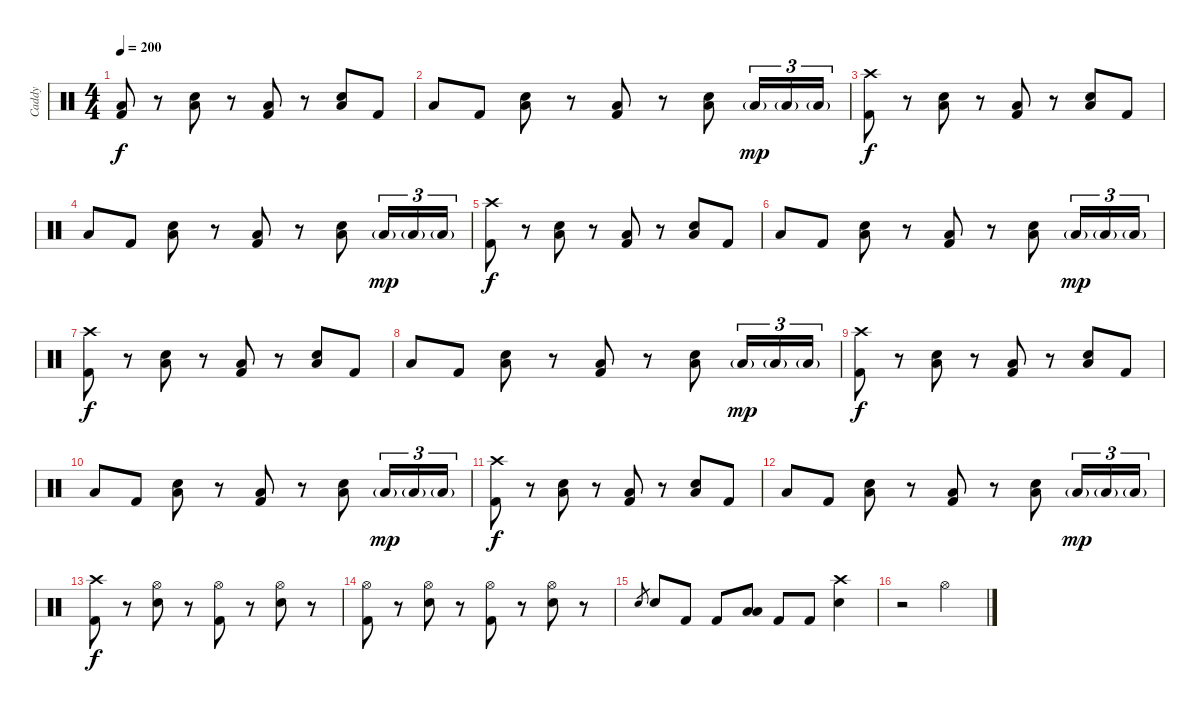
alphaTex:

\track ("Caddy" "Caddy") {instrument percussion}
\staff {score}
\articulation defaults
\ts (4 4)
\tempo 200
\clef neutral
\ks c
("Low Floor Tom (hit)" "Kick (hit) 2").8{dy f} r.8 ("Electric Snare (hit)" "Low Floor Tom (hit)").8 r.8 ("Low Floor Tom (hit)" "Kick (hit) 2").8 r.8 ("Electric Snare (hit)" "Low Floor Tom (hit)").8 "Kick (hit) 2".8 |
"Low Floor Tom (hit)".8 "Kick (hit) 2".8 ("Electric Snare (hit)" "Low Floor Tom (hit)").8 r.8 ("Low Floor Tom (hit)" "Kick (hit) 2").8 r.8 ("Electric Snare (hit)" "Low Floor Tom (hit)").8 "Low Floor Tom (hit)"{g}.16{tu (3 2) dy mp} "Low Floor Tom (hit)"{g}.16{tu (3 2)} "Low Floor Tom (hit)"{g}.16{tu (3 2)} |
("Crash high (hit)" "Kick (hit) 2").8{dy f} r.8 ("Electric Snare (hit)" "Low Floor Tom (hit)").8 r.8 ("Low Floor Tom (hit)" "Kick (hit) 2").8 r.8 ("Electric Snare (hit)" "Low Floor Tom (hit)").8 "Kick (hit) 2".8 |
"Low Floor Tom (hit)".8 "Kick (hit) 2".8 ("Electric Snare (hit)" "Low Floor Tom (hit)").8 r.8 ("Low Floor Tom (hit)" "Kick (hit) 2").8 r.8 ("Electric Snare (hit)" "Low Floor Tom (hit)").8 "Low Floor Tom (hit)"{g}.16{tu (3 2) dy mp} "Low Floor Tom (hit)"{g}.16{tu (3 2)} "Low Floor Tom (hit)"{g}.16{tu (3 2)} |
("Crash high (hit)" "Kick (hit) 2").8{dy f} r.8 ("Electric Snare (hit)" "Low Floor Tom (hit)").8 r.8 ("Low Floor Tom (hit)" "Kick (hit) 2").8 r.8 ("Electric Snare (hit)" "Low Floor Tom (hit)").8 "Kick (hit) 2".8 |
"Low Floor Tom (hit)".8 "Kick (hit) 2".8 ("Electric Snare (hit)" "Low Floor Tom (hit)").8 r.8 ("Low Floor Tom (hit)" "Kick (hit) 2").8 r.8 ("Electric Snare (hit)" "Low Floor Tom (hit)").8 "Low Floor Tom (hit)"{g}.16{tu (3 2) dy mp} "Low Floor Tom (hit)"{g}.16{tu (3 2)} "Low Floor Tom (hit)"{g}.16{tu (3 2)} |
("Crash high (hit)" "Kick (hit) 2").8{dy f} r.8 ("Electric Snare (hit)" "Low Floor Tom (hit)").8 r.8 ("Low Floor Tom (hit)" "Kick (hit) 2").8 r.8 ("Electric Snare (hit)" "Low Floor Tom (hit)").8 "Kick (hit) 2".8 |
"Low Floor Tom (hit)".8 "Kick (hit) 2".8 ("Electric Snare (hit)" "Low Floor Tom (hit)").8 r.8 ("Low Floor Tom (hit)" "Kick (hit) 2").8 r.8 ("Electric Snare (hit)" "Low Floor Tom (hit)").8 "Low Floor Tom (hit)"{g}.16{tu (3 2) dy mp} "Low Floor Tom (hit)"{g}.16{tu (3 2)} "Low Floor Tom (hit)"{g}.16{tu (3 2)} |
("Crash high (hit)" "Kick (hit) 2").8{dy f} r.8 ("Electric Snare (hit)" "Low Floor Tom (hit)").8 r.8 ("Low Floor Tom (hit)" "Kick (hit) 2").8 r.8 ("Electric Snare (hit)" "Low Floor Tom (hit)").8 "Kick (hit) 2".8 |
"Low Floor Tom (hit)".8 "Kick (hit) 2".8 ("Electric Snare (hit)" "Low Floor Tom (hit)").8 r.8 ("Low Floor Tom (hit)" "Kick (hit) 2").8 r.8 ("Electric Snare (hit)" "Low Floor Tom (hit)").8 "Low Floor Tom (hit)"{g}.16{tu (3 2) dy mp} "Low Floor Tom (hit)"{g}.16{tu (3 2)} "Low Floor Tom (hit)"{g}.16{tu (3 2)} |
("Crash high (hit)" "Kick (hit) 2").8{dy f} r.8 ("Electric Snare (hit)" "Low Floor Tom (hit)").8 r.8 ("Low Floor Tom (hit)" "Kick (hit) 2").8 r.8 ("Electric Snare (hit)" "Low Floor Tom (hit)").8 "Kick (hit) 2".8 |
"Low Floor Tom (hit)".8 "Kick (hit) 2".8 ("Electric Snare (hit)" "Low Floor Tom (hit)").8 r.8 ("Low Floor Tom (hit)" "Kick (hit) 2").8 r.8 ("Electric Snare (hit)" "Low Floor Tom (hit)").8 "Low Floor Tom (hit)"{g}.16{tu (3 2) dy mp} "Low Floor Tom (hit)"{g}.16{tu (3 2)} "Low Floor Tom (hit)"{g}.16{tu (3 2)} |
("Crash high (hit)" "Kick (hit) 2").8{dy f} r.8 ("Hi-Hat (open)" "Electric Snare (hit)").8 r.8 ("Hi-Hat (open)" "Kick (hit) 2").8 r.8 ("Hi-Hat (open)" "Electric Snare (hit)").8 r.8 |
("Hi-Hat (open)" "Kick (hit) 2").8 r.8 ("Hi-Hat (open)" "Electric Snare (hit)").8 r.8 ("Hi-Hat (open)" "Kick (hit) 2").8 r.8 ("Hi-Hat (open)" "Electric Snare (hit)").8 r.8 |
"Electric Snare (hit)".8{gr} "Electric Snare (hit)".8 "Kick (hit) 2".8 "Kick (hit) 2".8 ("Low Tom (hit)" "Low Floor Tom (hit)").8 "Kick (hit) 2".8 "Kick (hit) 2".8 ("Crash high (hit)" "Electric Snare (hit)").4 |
r.2 "Hi-Hat (open)".2
